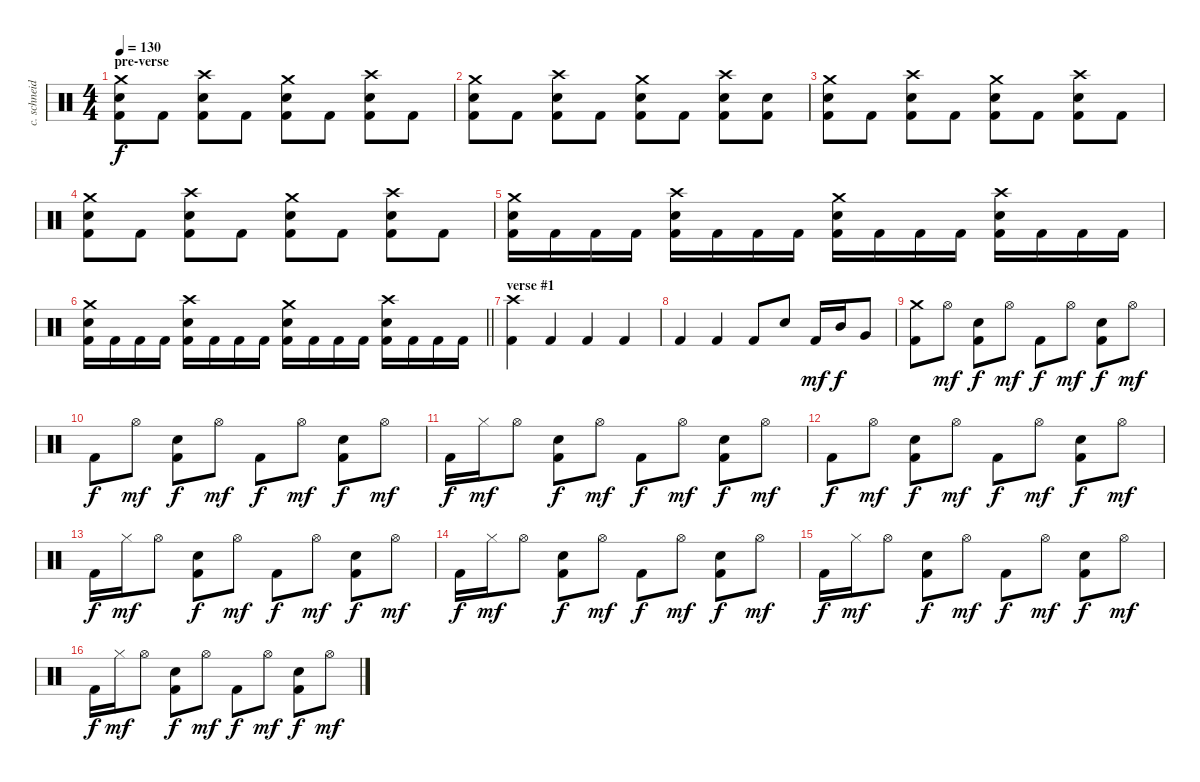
\track ("c. schneider - drums" "c. schneid") {instrument percussion}
\staff {score}
\articulation defaults
\ts (4 4)
\section ("" "pre-verse")
\tempo 130
\clef neutral
\ks c
("Crash medium (hit)" "Electric Snare (hit)" "Kick (hit) 2").8{dy f} "Kick (hit) 2".8 ("Crash high (hit)" "Electric Snare (hit)" "Kick (hit) 2").8 "Kick (hit) 2".8 ("Crash medium (hit)" "Electric Snare (hit)" "Kick (hit) 2").8 "Kick (hit) 2".8 ("Crash high (hit)" "Electric Snare (hit)" "Kick (hit) 2").8 "Kick (hit) 2".8 |
("Crash medium (hit)" "Electric Snare (hit)" "Kick (hit) 2").8 "Kick (hit) 2".8 ("Crash high (hit)" "Electric Snare (hit)" "Kick (hit) 2").8 "Kick (hit) 2".8 ("Crash medium (hit)" "Electric Snare (hit)" "Kick (hit) 2").8 "Kick (hit) 2".8 ("Crash high (hit)" "Electric Snare (hit)" "Kick (hit) 2").8 ("Electric Snare (hit)" "Kick (hit) 2").8 |
("Crash medium (hit)" "Electric Snare (hit)" "Kick (hit) 2").8 "Kick (hit) 2".8 ("Crash high (hit)" "Electric Snare (hit)" "Kick (hit) 2").8 "Kick (hit) 2".8 ("Crash medium (hit)" "Electric Snare (hit)" "Kick (hit) 2").8 "Kick (hit) 2".8 ("Crash high (hit)" "Electric Snare (hit)" "Kick (hit) 2").8 "Kick (hit) 2".8 |
("Crash medium (hit)" "Electric Snare (hit)" "Kick (hit) 2").8 "Kick (hit) 2".8 ("Crash high (hit)" "Electric Snare (hit)" "Kick (hit) 2").8 "Kick (hit) 2".8 ("Crash medium (hit)" "Electric Snare (hit)" "Kick (hit) 2").8 "Kick (hit) 2".8 ("Crash high (hit)" "Electric Snare (hit)" "Kick (hit) 2").8 "Kick (hit) 2".8 |
("Crash medium (hit)" "Electric Snare (hit)" "Kick (hit) 2").16 "Kick (hit) 2".16 "Kick (hit) 2".16 "Kick (hit) 2".16 ("Crash high (hit)" "Electric Snare (hit)" "Kick (hit) 2").16 "Kick (hit) 2".16 "Kick (hit) 2".16 "Kick (hit) 2".16 ("Crash medium (hit)" "Electric Snare (hit)" "Kick (hit) 2").16 "Kick (hit) 2".16 "Kick (hit) 2".16 "Kick (hit) 2".16 ("Crash high (hit)" "Electric Snare (hit)" "Kick (hit) 2").16 "Kick (hit) 2".16 "Kick (hit) 2".16 "Kick (hit) 2".16 |
\barLineRight lightlight
("Crash medium (hit)" "Electric Snare (hit)" "Kick (hit) 2").16 "Kick (hit) 2".16 "Kick (hit) 2".16 "Kick (hit) 2".16 ("Crash high (hit)" "Electric Snare (hit)" "Kick (hit) 2").16 "Kick (hit) 2".16 "Kick (hit) 2".16 "Kick (hit) 2".16 ("Crash medium (hit)" "Electric Snare (hit)" "Kick (hit) 2").16 "Kick (hit) 2".16 "Kick (hit) 2".16 "Kick (hit) 2".16 ("Crash high (hit)" "Electric Snare (hit)" "Kick (hit) 2").16 "Kick (hit) 2".16 "Kick (hit) 2".16 "Kick (hit) 2".16 |
\section ("" "verse #1")
("Crash high (hit)" "Kick (hit) 2").4 "Kick (hit) 2".4 "Kick (hit) 2".4 "Kick (hit) 2".4 |
"Kick (hit) 2".4 "Kick (hit) 2".4 "Kick (hit) 2".8 "Electric Snare (hit)".8 "Kick (hit) 2".16{dy mf} "Mid Tom (hit)".16{dy f} "Very Low Tom (hit)".8 |
("Crash medium (hit)" "Kick (hit) 2").8 "Hi-Hat (open)".8{dy mf} ("Electric Snare (hit)" "Kick (hit) 2").8{dy f} "Hi-Hat (open)".8{dy mf} "Kick (hit) 2".8{dy f} "Hi-Hat (open)".8{dy mf} ("Electric Snare (hit)" "Kick (hit) 2").8{dy f} "Hi-Hat (open)".8{dy mf} |
"Kick (hit) 2".8{dy f} "Hi-Hat (open)".8{dy mf} ("Electric Snare (hit)" "Kick (hit) 2").8{dy f} "Hi-Hat (open)".8{dy mf} "Kick (hit) 2".8{dy f} "Hi-Hat (open)".8{dy mf} ("Electric Snare (hit)" "Kick (hit) 2").8{dy f} "Hi-Hat (open)".8{dy mf} |
"Kick (hit) 2".16{dy f} "Hi-Hat (closed)".16{dy mf} "Hi-Hat (open)".8 ("Electric Snare (hit)" "Kick (hit) 2").8{dy f} "Hi-Hat (open)".8{dy mf} "Kick (hit) 2".8{dy f} "Hi-Hat (open)".8{dy mf} ("Electric Snare (hit)" "Kick (hit) 2").8{dy f} "Hi-Hat (open)".8{dy mf} |
"Kick (hit) 2".8{dy f} "Hi-Hat (open)".8{dy mf} ("Electric Snare (hit)" "Kick (hit) 2").8{dy f} "Hi-Hat (open)".8{dy mf} "Kick (hit) 2".8{dy f} "Hi-Hat (open)".8{dy mf} ("Electric Snare (hit)" "Kick (hit) 2").8{dy f} "Hi-Hat (open)".8{dy mf} |
"Kick (hit) 2".16{dy f} "Hi-Hat (closed)".16{dy mf} "Hi-Hat (open)".8 ("Electric Snare (hit)" "Kick (hit) 2").8{dy f} "Hi-Hat (open)".8{dy mf} "Kick (hit) 2".8{dy f} "Hi-Hat (open)".8{dy mf} ("Electric Snare (hit)" "Kick (hit) 2").8{dy f} "Hi-Hat (open)".8{dy mf} |
"Kick (hit) 2".16{dy f} "Hi-Hat (closed)".16{dy mf} "Hi-Hat (open)".8 ("Electric Snare (hit)" "Kick (hit) 2").8{dy f} "Hi-Hat (open)".8{dy mf} "Kick (hit) 2".8{dy f} "Hi-Hat (open)".8{dy mf} ("Electric Snare (hit)" "Kick (hit) 2").8{dy f} "Hi-Hat (open)".8{dy mf} |
"Kick (hit) 2".16{dy f} "Hi-Hat (closed)".16{dy mf} "Hi-Hat (open)".8 ("Electric Snare (hit)" "Kick (hit) 2").8{dy f} "Hi-Hat (open)".8{dy mf} "Kick (hit) 2".8{dy f} "Hi-Hat (open)".8{dy mf} ("Electric Snare (hit)" "Kick (hit) 2").8{dy f} "Hi-Hat (open)".8{dy mf} |
"Kick (hit) 2".16{dy f} "Hi-Hat (closed)".16{dy mf} "Hi-Hat (open)".8 ("Electric Snare (hit)" "Kick (hit) 2").8{dy f} "Hi-Hat (open)".8{dy mf} "Kick (hit) 2".8{dy f} "Hi-Hat (open)".8{dy mf} ("Electric Snare (hit)" "Kick (hit) 2").8{dy f} "Hi-Hat (open)".8{dy mf}
